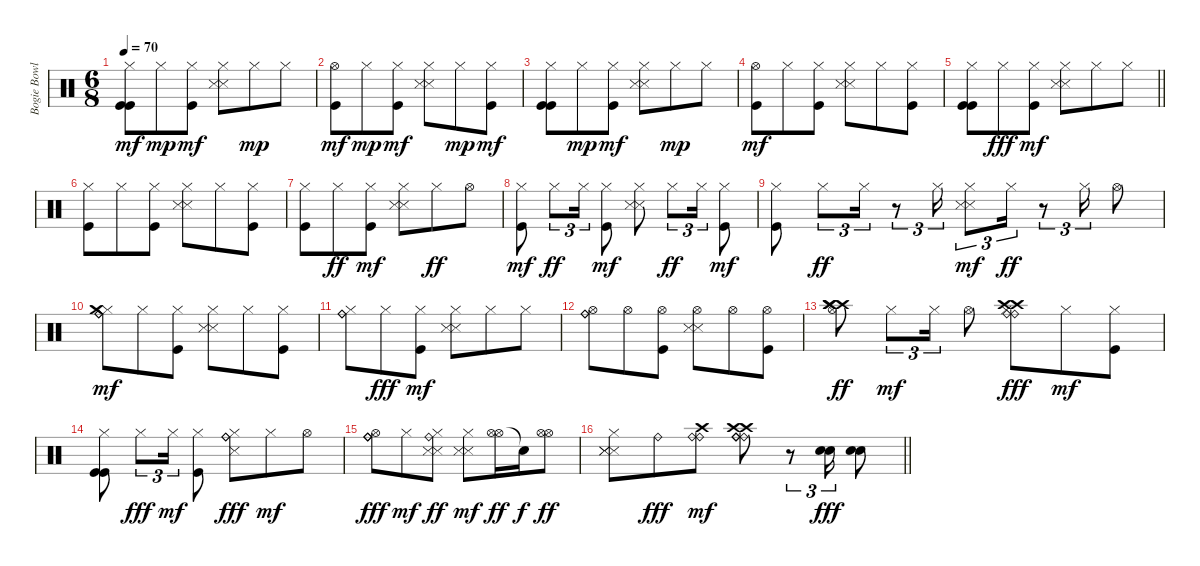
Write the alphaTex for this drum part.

\track ("Bogie Bowles" "Bogie Bowl") {instrument percussion}
\staff {score}
\articulation defaults
\ts (6 8)
\tempo 70
\clef neutral
\ks c
("Hi-Hat (closed)" "Kick (hit)" "Kick (hit)").8{dy mf} "Hi-Hat (closed)".8{dy mp} ("Hi-Hat (closed)" "Kick (hit)").8{dy mf} ("Hi-Hat (closed)" "Snare (side stick) 3" "Snare (side stick) 3").8 "Hi-Hat (closed)".8{dy mp} "Hi-Hat (closed)".8 |
("Hi-Hat (open)" "Kick (hit)").8{dy mf} "Hi-Hat (closed)".8{dy mp} ("Hi-Hat (closed)" "Kick (hit)").8{dy mf} ("Hi-Hat (closed)" "Snare (side stick) 3" "Snare (side stick) 3").8 "Hi-Hat (closed)".8{dy mp} ("Hi-Hat (closed)" "Kick (hit)").8{dy mf} |
("Hi-Hat (closed)" "Kick (hit)" "Kick (hit)").8 "Hi-Hat (closed)".8{dy mp} ("Hi-Hat (closed)" "Kick (hit)").8{dy mf} ("Hi-Hat (closed)" "Snare (side stick) 3" "Snare (side stick) 3").8 "Hi-Hat (closed)".8{dy mp} "Hi-Hat (closed)".8 |
("Hi-Hat (open)" "Kick (hit)").8{dy mf} "Hi-Hat (closed)".8 ("Hi-Hat (closed)" "Kick (hit)").8 ("Hi-Hat (closed)" "Snare (side stick) 3" "Snare (side stick) 3").8 "Hi-Hat (closed)".8 ("Hi-Hat (closed)" "Kick (hit)").8 |
\barLineRight lightlight
("Hi-Hat (closed)" "Kick (hit)" "Kick (hit)").8 "Hi-Hat (closed)".8{dy fff} ("Hi-Hat (closed)" "Kick (hit)").8{dy mf} ("Hi-Hat (closed)" "Snare (side stick) 3" "Snare (side stick) 3").8 "Hi-Hat (closed)".8 "Hi-Hat (closed)".8 |
("Hi-Hat (closed)" "Kick (hit)").8 "Hi-Hat (closed)".8 ("Hi-Hat (closed)" "Kick (hit)").8 ("Hi-Hat (closed)" "Snare (side stick) 3" "Snare (side stick) 3").8 "Hi-Hat (closed)".8 ("Hi-Hat (closed)" "Kick (hit)").8 |
("Hi-Hat (closed)" "Kick (hit)").8 "Hi-Hat (closed)".8{dy ff} ("Hi-Hat (closed)" "Kick (hit)").8{dy mf} ("Hi-Hat (closed)" "Snare (side stick) 3" "Snare (side stick) 3").8 "Hi-Hat (closed)".8{dy ff} "Hi-Hat (open)".8 |
("Hi-Hat (closed)" "Kick (hit)").8{dy mf} "Hi-Hat (closed)".8{tu (3 2) dy ff} "Hi-Hat (closed)".16{tu (3 2)} ("Hi-Hat (closed)" "Kick (hit)").8{dy mf} ("Hi-Hat (closed)" "Snare (side stick) 3" "Snare (side stick) 3").8 "Hi-Hat (closed)".8{tu (3 2) dy ff} "Hi-Hat (closed)".16{tu (3 2)} ("Hi-Hat (closed)" "Kick (hit)").8{dy mf} |
("Hi-Hat (closed)" "Kick (hit)").8 "Hi-Hat (closed)".8{tu (3 2) dy ff} "Hi-Hat (closed)".16{tu (3 2)} r.8{tu (3 2)} "Hi-Hat (closed)".16{tu (3 2)} ("Hi-Hat (closed)" "Snare (side stick) 3" "Snare (side stick) 3").8{tu (3 2) dy mf} "Hi-Hat (closed)".16{tu (3 2) dy ff} r.8{tu (3 2)} "Hi-Hat (closed)".16{tu (3 2)} "Hi-Hat (open)".8 |
("Hi-Hat (closed)" "Ride (bell)" "Ride (bell)" "Crash medium (hit)").8{dy mf} "Hi-Hat (closed)".8 ("Hi-Hat (closed)" "Kick (hit)").8 ("Hi-Hat (closed)" "Snare (side stick) 3" "Snare (side stick) 3").8 "Hi-Hat (closed)".8 ("Hi-Hat (closed)" "Kick (hit)").8 |
("Hi-Hat (closed)" "Ride (bell)" "Ride (bell)").8 "Hi-Hat (closed)".8{dy fff} ("Hi-Hat (closed)" "Kick (hit)").8{dy mf} ("Hi-Hat (closed)" "Snare (side stick) 3" "Snare (side stick) 3").8 "Hi-Hat (closed)".8 "Hi-Hat (closed)".8 |
("Hi-Hat (open)" "Ride (bell)" "Ride (bell)").8 "Hi-Hat (open)".8 ("Hi-Hat (open)" "Kick (hit)").8 ("Hi-Hat (open)" "Snare (side stick) 3" "Snare (side stick) 3").8 "Hi-Hat (open)".8 ("Hi-Hat (open)" "Kick (hit)").8 |
("Hi-Hat (open)" "Crash high (hit)" "Crash high (hit)" "Crash high (hit)").8{dy ff} "Hi-Hat (closed)".8{tu (3 2) dy mf} "Hi-Hat (closed)".16{tu (3 2)} "Hi-Hat (open)".8 ("Hi-Hat (closed)" "Crash high (hit)" "Crash high (hit)" "Ride (bell)" "Ride (bell)").8{dy fff} "Hi-Hat (closed)".8{dy mf} ("Hi-Hat (closed)" "Kick (hit)").8 |
("Hi-Hat (closed)" "Kick (hit)" "Kick (hit)").8 "Hi-Hat (closed)".8{tu (3 2) dy fff} "Hi-Hat (closed)".16{tu (3 2) dy mf} ("Hi-Hat (closed)" "Kick (hit)").8 ("Hi-Hat (closed)" "Snare (side stick) 3" "Ride (bell)" "Ride (bell)").8{dy fff} "Hi-Hat (closed)".8{dy mf} "Hi-Hat (open)".8 |
("Hi-Hat (open)" "Ride (bell)" "Ride (bell)" "Ride (bell)").8{dy fff} "Hi-Hat (closed)".8{dy mf} ("Hi-Hat (closed)" "Ride (bell)" "Snare (side stick) 3" "Snare (side stick) 3").8{dy ff} ("Hi-Hat (closed)" "Snare (side stick) 3" "Snare (side stick) 3").8{dy mf} ("Hi-Hat (open)" "Hi-Hat (open)").16{dy ff} "Snare (hit)"{t}.16{dy f} ("Hi-Hat (open)" "Hi-Hat (open)").8{dy ff} |
\barLineRight lightlight
("Hi-Hat (closed)" "Snare (side stick) 3" "Snare (side stick) 3" "Snare (side stick) 3").8{volume 16} "Ride (bell)".8{dy fff} ("Ride (bell)" "Ride (bell)" "Crash high (hit)").8{dy mf} ("Ride (bell)" "Ride (bell)" "Ride (bell)" "Ride (bell)" "Crash high (hit)" "Crash high (hit)").8 r.8{tu (3 2)} ("Snare (hit) 2" "Snare (hit) 2").16{tu (3 2) dy fff} ("Snare (hit) 2" "Snare (hit) 2").8
